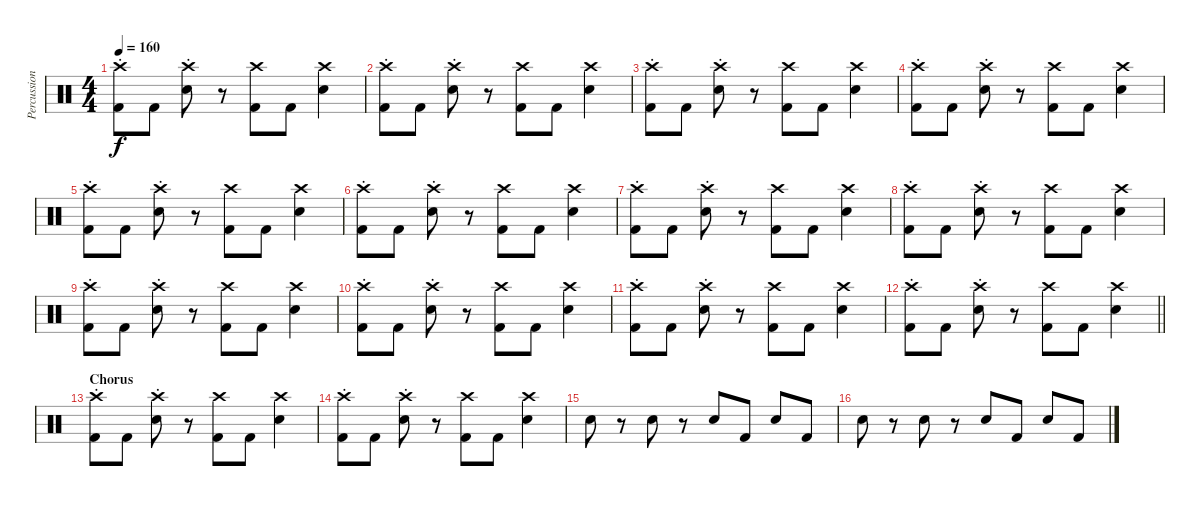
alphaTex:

\track ("Percussion" "Percussion") {instrument percussion}
\staff {score}
\articulation defaults
\ts (4 4)
\tempo 160
\clef neutral
\ks c
("Crash high (hit)"{st} "Kick (hit) 2").8{dy f} "Kick (hit) 2".8 ("Crash high (hit)"{st} "Snare (hit) 2").8 r.8 ("Crash high (hit)" "Kick (hit) 2").8 "Kick (hit) 2".8 ("Crash high (hit)" "Snare (hit) 2").4 |
("Crash high (hit)"{st} "Kick (hit) 2").8 "Kick (hit) 2".8 ("Crash high (hit)"{st} "Snare (hit) 2").8 r.8 ("Crash high (hit)" "Kick (hit) 2").8 "Kick (hit) 2".8 ("Crash high (hit)" "Snare (hit) 2").4 |
("Crash high (hit)"{st} "Kick (hit) 2").8 "Kick (hit) 2".8 ("Crash high (hit)"{st} "Snare (hit) 2").8 r.8 ("Crash high (hit)" "Kick (hit) 2").8 "Kick (hit) 2".8 ("Crash high (hit)" "Snare (hit) 2").4 |
("Crash high (hit)"{st} "Kick (hit) 2").8 "Kick (hit) 2".8 ("Crash high (hit)"{st} "Snare (hit) 2").8 r.8 ("Crash high (hit)" "Kick (hit) 2").8 "Kick (hit) 2".8 ("Crash high (hit)" "Snare (hit) 2").4 |
("Crash high (hit)"{st} "Kick (hit) 2").8 "Kick (hit) 2".8 ("Crash high (hit)"{st} "Snare (hit) 2").8 r.8 ("Crash high (hit)" "Kick (hit) 2").8 "Kick (hit) 2".8 ("Crash high (hit)" "Snare (hit) 2").4 |
("Crash high (hit)"{st} "Kick (hit) 2").8 "Kick (hit) 2".8 ("Crash high (hit)"{st} "Snare (hit) 2").8 r.8 ("Crash high (hit)" "Kick (hit) 2").8 "Kick (hit) 2".8 ("Crash high (hit)" "Snare (hit) 2").4 |
("Crash high (hit)"{st} "Kick (hit) 2").8 "Kick (hit) 2".8 ("Crash high (hit)"{st} "Snare (hit) 2").8 r.8 ("Crash high (hit)" "Kick (hit) 2").8 "Kick (hit) 2".8 ("Crash high (hit)" "Snare (hit) 2").4 |
("Crash high (hit)"{st} "Kick (hit) 2").8 "Kick (hit) 2".8 ("Crash high (hit)"{st} "Snare (hit) 2").8 r.8 ("Crash high (hit)" "Kick (hit) 2").8 "Kick (hit) 2".8 ("Crash high (hit)" "Snare (hit) 2").4 |
("Crash high (hit)"{st} "Kick (hit) 2").8 "Kick (hit) 2".8 ("Crash high (hit)"{st} "Snare (hit) 2").8 r.8 ("Crash high (hit)" "Kick (hit) 2").8 "Kick (hit) 2".8 ("Crash high (hit)" "Snare (hit) 2").4 |
("Crash high (hit)"{st} "Kick (hit) 2").8 "Kick (hit) 2".8 ("Crash high (hit)"{st} "Snare (hit) 2").8 r.8 ("Crash high (hit)" "Kick (hit) 2").8 "Kick (hit) 2".8 ("Crash high (hit)" "Snare (hit) 2").4 |
("Crash high (hit)"{st} "Kick (hit) 2").8 "Kick (hit) 2".8 ("Crash high (hit)"{st} "Snare (hit) 2").8 r.8 ("Crash high (hit)" "Kick (hit) 2").8 "Kick (hit) 2".8 ("Crash high (hit)" "Snare (hit) 2").4 |
\barLineRight lightlight
("Crash high (hit)"{st} "Kick (hit) 2").8 "Kick (hit) 2".8 ("Crash high (hit)"{st} "Snare (hit) 2").8 r.8 ("Crash high (hit)" "Kick (hit) 2").8 "Kick (hit) 2".8 ("Crash high (hit)" "Snare (hit) 2").4 |
\section ("" "Chorus")
("Crash high (hit)"{st} "Kick (hit) 2").8 "Kick (hit) 2".8 ("Crash high (hit)"{st} "Snare (hit) 2").8 r.8 ("Crash high (hit)" "Kick (hit) 2").8 "Kick (hit) 2".8 ("Crash high (hit)" "Snare (hit) 2").4 |
("Crash high (hit)"{st} "Kick (hit) 2").8 "Kick (hit) 2".8 ("Crash high (hit)"{st} "Snare (hit) 2").8 r.8 ("Crash high (hit)" "Kick (hit) 2").8 "Kick (hit) 2".8 ("Crash high (hit)" "Snare (hit) 2").4 |
"Snare (hit) 2".8 r.8 "Snare (hit) 2".8 r.8 "Snare (hit) 2".8 "Kick (hit) 2".8 "Snare (hit) 2".8 "Kick (hit) 2".8 |
"Snare (hit) 2".8 r.8 "Snare (hit) 2".8 r.8 "Snare (hit) 2".8 "Kick (hit) 2".8 "Snare (hit) 2".8 "Kick (hit) 2".8
